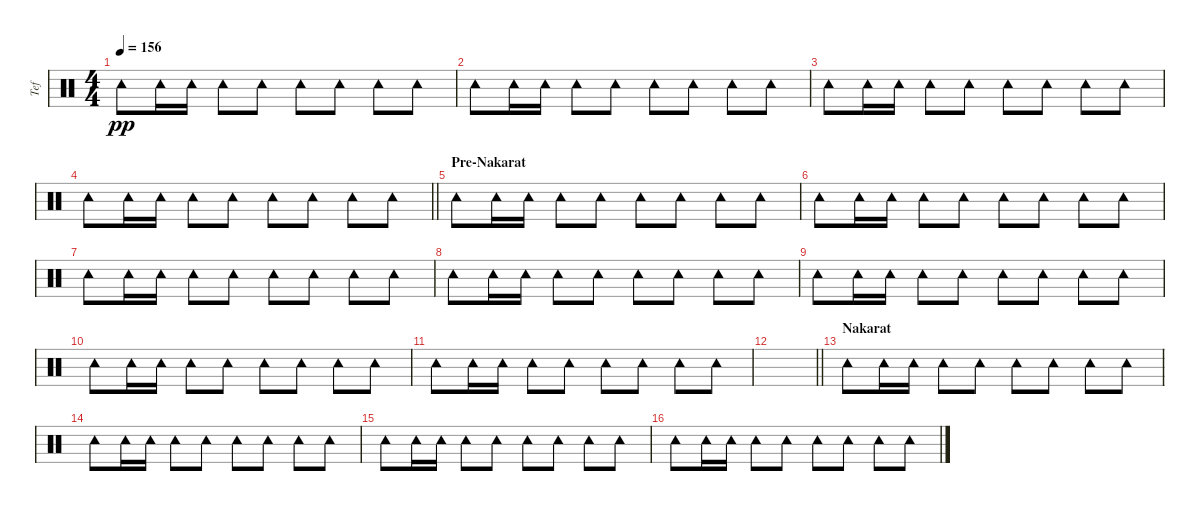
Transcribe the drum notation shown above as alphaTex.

\track ("Tef" "Tef") {instrument percussion}
\staff {score}
\articulation defaults
\ts (4 4)
\tempo 156
\clef neutral
\ks c "Tambourine (hit)".8{dy pp} "Tambourine (hit)".16 "Tambourine (hit)".16 "Tambourine (hit)".8 "Tambourine (hit)".8 "Tambourine (hit)".8 "Tambourine (hit)".8 "Tambourine (hit)".8 "Tambourine (hit)".8
|
"Tambourine (hit)".8 "Tambourine (hit)".16 "Tambourine (hit)".16 "Tambourine (hit)".8 "Tambourine (hit)".8 "Tambourine (hit)".8 "Tambourine (hit)".8 "Tambourine (hit)".8 "Tambourine (hit)".8 |
"Tambourine (hit)".8 "Tambourine (hit)".16 "Tambourine (hit)".16 "Tambourine (hit)".8 "Tambourine (hit)".8 "Tambourine (hit)".8 "Tambourine (hit)".8 "Tambourine (hit)".8 "Tambourine (hit)".8 |
\barLineRight lightlight "Tambourine (hit)".8 "Tambourine (hit)".16 "Tambourine (hit)".16 "Tambourine (hit)".8 "Tambourine (hit)".8 "Tambourine (hit)".8 "Tambourine (hit)".8 "Tambourine (hit)".8 "Tambourine (hit)".8
|
\section ("" "Pre-Nakarat")
"Tambourine (hit)".8 "Tambourine (hit)".16 "Tambourine (hit)".16 "Tambourine (hit)".8 "Tambourine (hit)".8 "Tambourine (hit)".8 "Tambourine (hit)".8 "Tambourine (hit)".8 "Tambourine (hit)".8 |
"Tambourine (hit)".8 "Tambourine (hit)".16 "Tambourine (hit)".16 "Tambourine (hit)".8 "Tambourine (hit)".8 "Tambourine (hit)".8 "Tambourine (hit)".8 "Tambourine (hit)".8 "Tambourine (hit)".8 |
"Tambourine (hit)".8 "Tambourine (hit)".16 "Tambourine (hit)".16 "Tambourine (hit)".8 "Tambourine (hit)".8 "Tambourine (hit)".8 "Tambourine (hit)".8 "Tambourine (hit)".8 "Tambourine (hit)".8 |
"Tambourine (hit)".8 "Tambourine (hit)".16 "Tambourine (hit)".16 "Tambourine (hit)".8 "Tambourine (hit)".8 "Tambourine (hit)".8 "Tambourine (hit)".8 "Tambourine (hit)".8 "Tambourine (hit)".8 |
"Tambourine (hit)".8 "Tambourine (hit)".16 "Tambourine (hit)".16 "Tambourine (hit)".8 "Tambourine (hit)".8 "Tambourine (hit)".8 "Tambourine (hit)".8 "Tambourine (hit)".8 "Tambourine (hit)".8 |
"Tambourine (hit)".8 "Tambourine (hit)".16 "Tambourine (hit)".16 "Tambourine (hit)".8 "Tambourine (hit)".8 "Tambourine (hit)".8 "Tambourine (hit)".8 "Tambourine (hit)".8 "Tambourine (hit)".8 |
"Tambourine (hit)".8 "Tambourine (hit)".16 "Tambourine (hit)".16 "Tambourine (hit)".8 "Tambourine (hit)".8 "Tambourine (hit)".8 "Tambourine (hit)".8 "Tambourine (hit)".8 "Tambourine (hit)".8 |
\barLineRight lightlight
|
\section ("" "Nakarat")
"Tambourine (hit)".8 "Tambourine (hit)".16 "Tambourine (hit)".16 "Tambourine (hit)".8 "Tambourine (hit)".8 "Tambourine (hit)".8 "Tambourine (hit)".8 "Tambourine (hit)".8 "Tambourine (hit)".8 |
"Tambourine (hit)".8 "Tambourine (hit)".16 "Tambourine (hit)".16 "Tambourine (hit)".8 "Tambourine (hit)".8 "Tambourine (hit)".8 "Tambourine (hit)".8 "Tambourine (hit)".8 "Tambourine (hit)".8 |
"Tambourine (hit)".8 "Tambourine (hit)".16 "Tambourine (hit)".16 "Tambourine (hit)".8 "Tambourine (hit)".8 "Tambourine (hit)".8 "Tambourine (hit)".8 "Tambourine (hit)".8 "Tambourine (hit)".8 |
"Tambourine (hit)".8 "Tambourine (hit)".16 "Tambourine (hit)".16 "Tambourine (hit)".8 "Tambourine (hit)".8 "Tambourine (hit)".8 "Tambourine (hit)".8 "Tambourine (hit)".8 "Tambourine (hit)".8
